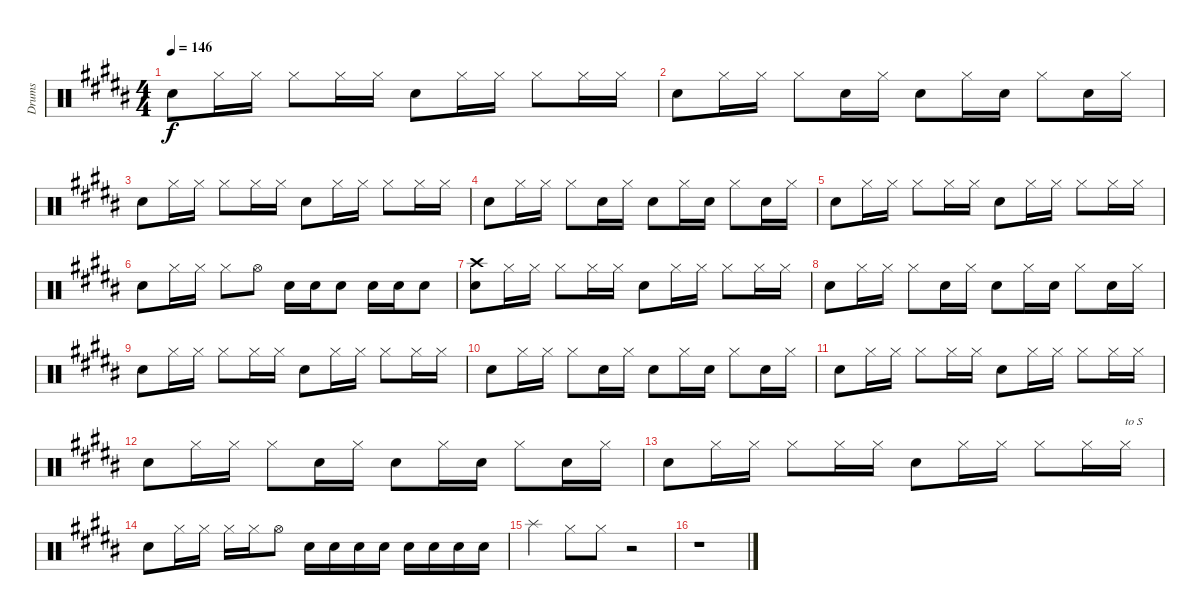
\track ("Drums" "Drums") {instrument percussion}
\staff {score}
\articulation defaults
\ts (4 4)
\tempo 146
\clef neutral
\ks b "Snare (hit) 2".8{dy f} "Hi-Hat (closed)".16 "Hi-Hat (closed)".16 "Hi-Hat (closed)".8 "Hi-Hat (closed)".16 "Hi-Hat (closed)".16 "Snare (hit) 2".8 "Hi-Hat (closed)".16 "Hi-Hat (closed)".16 "Hi-Hat (closed)".8 "Hi-Hat (closed)".16 "Hi-Hat (closed)".16
|
"Snare (hit) 2".8 "Hi-Hat (closed)".16 "Hi-Hat (closed)".16 "Hi-Hat (closed)".8 "Snare (hit) 2".16 "Hi-Hat (closed)".16 "Snare (hit) 2".8 "Hi-Hat (closed)".16 "Snare (hit) 2".16 "Hi-Hat (closed)".8 "Snare (hit) 2".16 "Hi-Hat (closed)".16 |
"Snare (hit) 2".8 "Hi-Hat (closed)".16 "Hi-Hat (closed)".16 "Hi-Hat (closed)".8 "Hi-Hat (closed)".16 "Hi-Hat (closed)".16 "Snare (hit) 2".8 "Hi-Hat (closed)".16 "Hi-Hat (closed)".16 "Hi-Hat (closed)".8 "Hi-Hat (closed)".16 "Hi-Hat (closed)".16 |
"Snare (hit) 2".8 "Hi-Hat (closed)".16 "Hi-Hat (closed)".16 "Hi-Hat (closed)".8 "Snare (hit) 2".16 "Hi-Hat (closed)".16 "Snare (hit) 2".8 "Hi-Hat (closed)".16 "Snare (hit) 2".16 "Hi-Hat (closed)".8 "Snare (hit) 2".16 "Hi-Hat (closed)".16 |
"Snare (hit) 2".8 "Hi-Hat (closed)".16 "Hi-Hat (closed)".16 "Hi-Hat (closed)".8 "Hi-Hat (closed)".16 "Hi-Hat (closed)".16 "Snare (hit) 2".8 "Hi-Hat (closed)".16 "Hi-Hat (closed)".16 "Hi-Hat (closed)".8 "Hi-Hat (closed)".16 "Hi-Hat (closed)".16 |
"Snare (hit) 2".8 "Hi-Hat (closed)".16 "Hi-Hat (closed)".16 "Hi-Hat (closed)".8 "Hi-Hat (open)".8 "Snare (hit) 2".16 "Snare (hit) 2".16 "Snare (hit) 2".8 "Snare (hit) 2".16 "Snare (hit) 2".16 "Snare (hit) 2".8 |
("Crash high (hit)" "Snare (hit) 2").8 "Hi-Hat (closed)".16 "Hi-Hat (closed)".16 "Hi-Hat (closed)".8 "Hi-Hat (closed)".16 "Hi-Hat (closed)".16 "Snare (hit) 2".8 "Hi-Hat (closed)".16 "Hi-Hat (closed)".16 "Hi-Hat (closed)".8 "Hi-Hat (closed)".16 "Hi-Hat (closed)".16 |
"Snare (hit) 2".8 "Hi-Hat (closed)".16 "Hi-Hat (closed)".16 "Hi-Hat (closed)".8 "Snare (hit) 2".16 "Hi-Hat (closed)".16 "Snare (hit) 2".8 "Hi-Hat (closed)".16 "Snare (hit) 2".16 "Hi-Hat (closed)".8 "Snare (hit) 2".16 "Hi-Hat (closed)".16 |
"Snare (hit) 2".8 "Hi-Hat (closed)".16 "Hi-Hat (closed)".16 "Hi-Hat (closed)".8 "Hi-Hat (closed)".16 "Hi-Hat (closed)".16 "Snare (hit) 2".8 "Hi-Hat (closed)".16 "Hi-Hat (closed)".16 "Hi-Hat (closed)".8 "Hi-Hat (closed)".16 "Hi-Hat (closed)".16 |
"Snare (hit) 2".8 "Hi-Hat (closed)".16 "Hi-Hat (closed)".16 "Hi-Hat (closed)".8 "Snare (hit) 2".16 "Hi-Hat (closed)".16 "Snare (hit) 2".8 "Hi-Hat (closed)".16 "Snare (hit) 2".16 "Hi-Hat (closed)".8 "Snare (hit) 2".16 "Hi-Hat (closed)".16 |
"Snare (hit) 2".8 "Hi-Hat (closed)".16 "Hi-Hat (closed)".16 "Hi-Hat (closed)".8 "Hi-Hat (closed)".16 "Hi-Hat (closed)".16 "Snare (hit) 2".8 "Hi-Hat (closed)".16 "Hi-Hat (closed)".16 "Hi-Hat (closed)".8 "Hi-Hat (closed)".16 "Hi-Hat (closed)".16 |
"Snare (hit) 2".8 "Hi-Hat (closed)".16 "Hi-Hat (closed)".16 "Hi-Hat (closed)".8 "Snare (hit) 2".16 "Hi-Hat (closed)".16 "Snare (hit) 2".8 "Hi-Hat (closed)".16 "Snare (hit) 2".16 "Hi-Hat (closed)".8 "Snare (hit) 2".16 "Hi-Hat (closed)".16 |
"Snare (hit) 2".8 "Hi-Hat (closed)".16 "Hi-Hat (closed)".16 "Hi-Hat (closed)".8 "Hi-Hat (closed)".16 "Hi-Hat (closed)".16 "Snare (hit) 2".8 "Hi-Hat (closed)".16 "Hi-Hat (closed)".16 "Hi-Hat (closed)".8 "Hi-Hat (closed)".16 "Hi-Hat (closed)".16{txt "to S"} |
"Snare (hit) 2".8 "Hi-Hat (closed)".16 "Hi-Hat (closed)".16 "Hi-Hat (closed)".16 "Hi-Hat (closed)".16 "Hi-Hat (open)".8 "Snare (hit) 2".16 "Snare (hit) 2".16 "Snare (hit) 2".16 "Snare (hit) 2".16 "Snare (hit) 2".16 "Snare (hit) 2".16 "Snare (hit) 2".16 "Snare (hit) 2".16 |
"Splash (hit)".4 "Hi-Hat (closed)".8 "Hi-Hat (closed)".8 r.2 |
r.1
